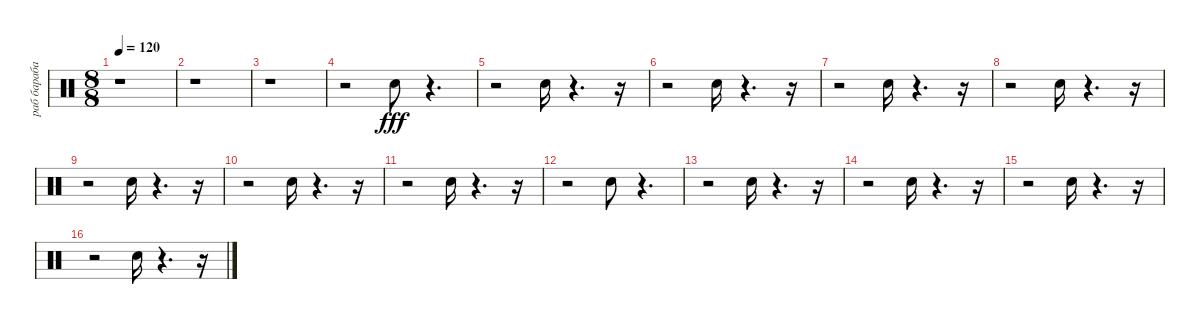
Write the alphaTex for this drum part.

\track ("раб барабан" "раб бараба") {instrument percussion}
\staff {score}
\articulation defaults
\ts (8 8)
\tempo 120
\clef neutral
\ks c
r.1{dy fff} |
r.1 |
r.1 |
r.2 "Snare (hit) 2".8 r.4{d} |
r.2 "Snare (hit) 2".16 r.4{d} r.16 |
r.2 "Snare (hit) 2".16 r.4{d} r.16 |
r.2 "Snare (hit) 2".16 r.4{d} r.16 |
r.2 "Snare (hit) 2".16 r.4{d} r.16 |
r.2 "Snare (hit) 2".16 r.4{d} r.16 |
r.2 "Snare (hit) 2".16 r.4{d} r.16 |
r.2 "Snare (hit) 2".16 r.4{d} r.16 |
r.2 "Snare (hit) 2".8{volume 16} r.4{d} |
r.2 "Snare (hit) 2".16{volume 14} r.4{d} r.16 |
r.2 "Snare (hit) 2".16{volume 12} r.4{d} r.16 |
r.2 "Snare (hit) 2".16{volume 10} r.4{d} r.16 |
r.2 "Snare (hit) 2".16{volume 8} r.4{d} r.16
